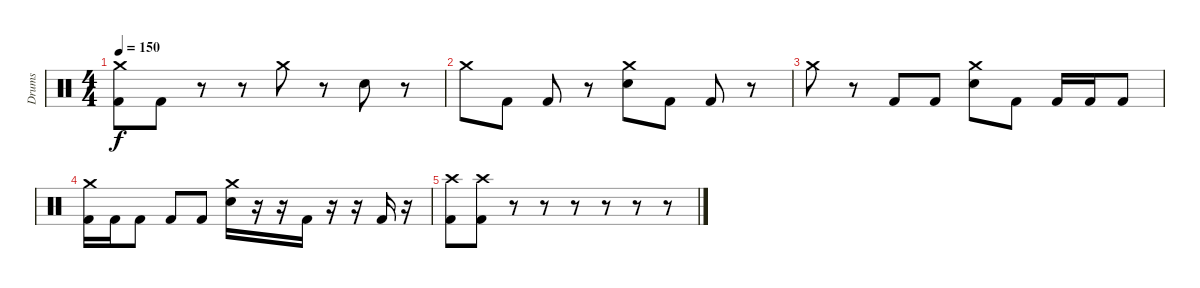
\track ("Drums" "Drums") {instrument percussion}
\staff {score}
\articulation defaults
\ts (4 4)
\tempo 150
\clef neutral
\ks c
("Crash medium (hit)" "Kick (hit) 2").8{dy f} "Kick (hit) 2".8 r.8 r.8 "Crash medium (hit)".8 r.8 "Electric Snare (hit)".8 r.8 |
"Crash medium (hit)".8 "Kick (hit) 2".8 "Kick (hit) 2".8 r.8 ("Crash medium (hit)" "Electric Snare (hit)").8 "Kick (hit) 2".8 "Kick (hit) 2".8 r.8 |
"Crash medium (hit)".8 r.8 "Kick (hit) 2".8 "Kick (hit) 2".8 ("Crash medium (hit)" "Electric Snare (hit)").8 "Kick (hit) 2".8 "Kick (hit) 2".16 "Kick (hit) 2".16 "Kick (hit) 2".8 |
("Crash medium (hit)" "Kick (hit) 2").16 "Kick (hit) 2".16 "Kick (hit) 2".8 "Kick (hit) 2".8 "Kick (hit) 2".8 ("Crash medium (hit)" "Electric Snare (hit)").16 r.16 r.16 "Kick (hit) 2".16 r.16 r.16 "Kick (hit) 2".16 r.16 |
("Crash high (hit)" "Kick (hit) 2").8 ("Crash high (hit)" "Kick (hit) 2").8 r.8 r.8 r.8 r.8 r.8 r.8
